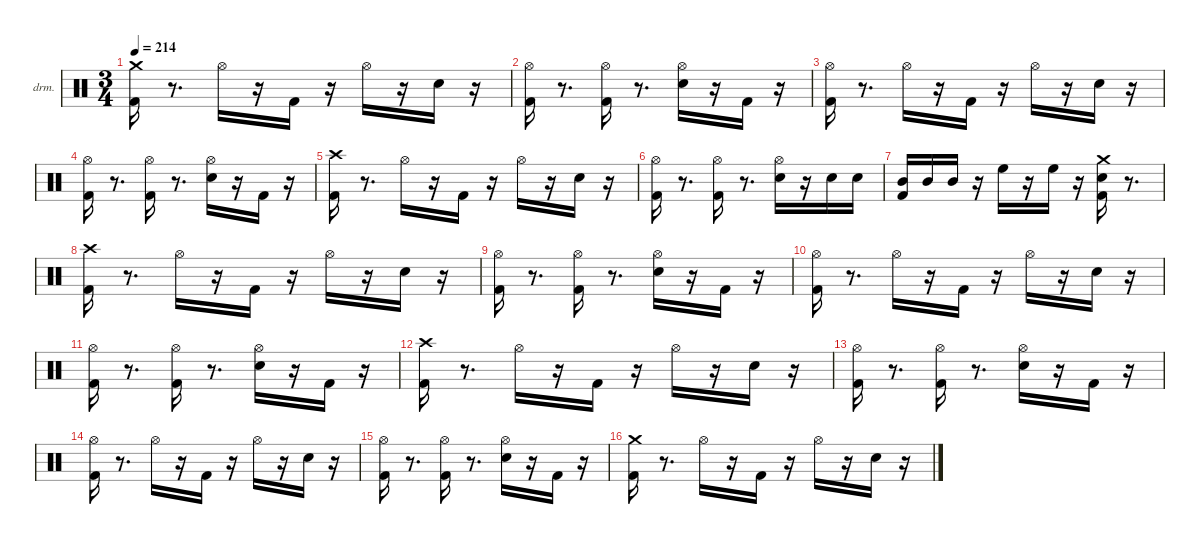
\hideDynamics
\bracketExtendMode nobrackets
\firstSystemTrackNameOrientation horizontal
\otherSystemsTrackNameOrientation horizontal
\track ("EZdrummer 3" "drm.") {instrument percussion}
\staff {score}
\articulation defaults
\ts (3 4)
\tempo 214
\clef neutral
\ks aminor
("Kick (hit) 2" "Crash medium (hit)").16{dy fff beam Down} r.8{d beam Down} "Hi-Hat (open)"{acc #}.16{dy mf beam Down} r.16{beam Down} "Kick (hit) 2".16{dy ff beam Up} r.16{beam Up} "Hi-Hat (open)"{acc #}.16{dy f beam Down} r.16{beam Down} "Snare (hit) 2".16{dy ff beam Down} r.16{beam Down} |
("Kick (hit) 2" "Hi-Hat (open)"{acc #}).16{beam Down} r.8{d beam Down} ("Kick (hit) 2" "Hi-Hat (open)"{acc #}).16{dy f beam Down} r.8{d beam Down} ("Snare (hit) 2" "Hi-Hat (open)"{acc #}).16{beam Down} r.16{beam Down} "Kick (hit) 2".16{dy mp beam Up} r.16{beam Up} |
("Kick (hit) 2" "Hi-Hat (open)"{acc #}).16{dy fff beam Down} r.8{d beam Down} "Hi-Hat (open)"{acc #}.16{dy mf beam Down} r.16{beam Down} "Kick (hit) 2".16{dy ff beam Up} r.16{beam Up} "Hi-Hat (open)"{acc #}.16{dy f beam Down} r.16{beam Down} "Snare (hit) 2".16{dy ff beam Down} r.16{beam Down} |
("Kick (hit) 2" "Hi-Hat (open)"{acc #}).16{dy fff beam Down} r.8{d beam Down} ("Kick (hit) 2" "Hi-Hat (open)"{acc #}).16{dy f beam Down} r.8{d beam Down} ("Snare (hit) 2" "Hi-Hat (open)"{acc #}).16{beam Down} r.16{beam Down} "Kick (hit) 2".16{dy mp beam Up} r.16{beam Up} |
("Kick (hit) 2" "Crash high (hit)"{acc #}).16{dy ff beam Down} r.8{d beam Down} "Hi-Hat (open)"{acc #}.16{dy f beam Down} r.16{beam Down} "Kick (hit) 2".16{dy ff beam Up} r.16{beam Up} "Hi-Hat (open)"{acc #}.16{beam Down} r.16{beam Down} "Snare (hit) 2".16{beam Down} r.16{beam Down} |
("Kick (hit) 2" "Hi-Hat (open)"{acc #}).16{dy f beam Down} r.8{d beam Down} ("Kick (hit) 2" "Hi-Hat (open)"{acc #}).16{dy mf beam Down} r.8{d beam Down} ("Snare (hit) 2" "Hi-Hat (open)"{acc #}).16{dy fff beam Down} r.16{beam Down} "Snare (hit) 2".16{dy mf beam Down} "Snare (hit) 2".16{dy pp beam Down} |
("Kick (hit) 2" "Mid Tom (hit)").16{dy ff beam Up} "Mid Tom (hit)".16{dy mf beam Up} "Mid Tom (hit)".16{dy fff beam Up} r.16{beam Up} "High Floor Tom (hit)".16{dy ff beam Down} r.16{beam Down} "High Floor Tom (hit)".16{dy mf beam Down} r.16{beam Down} ("Kick (hit) 2" "Snare (hit) 2" "Crash medium (hit)").16{dy f beam Down} r.8{d beam Down} |
("Kick (hit) 2" "Crash high (hit)"{acc #}).16{dy fff beam Down} r.8{d beam Down} "Hi-Hat (open)"{acc #}.16{dy mf beam Down} r.16{beam Down} "Kick (hit) 2".16{dy ff beam Up} r.16{beam Up} "Hi-Hat (open)"{acc #}.16{dy f beam Down} r.16{beam Down} "Snare (hit) 2".16{dy ff beam Down} r.16{beam Down} |
("Kick (hit) 2" "Hi-Hat (open)"{acc #}).16{beam Down} r.8{d beam Down} ("Kick (hit) 2" "Hi-Hat (open)"{acc #}).16{dy f beam Down} r.8{d beam Down} ("Snare (hit) 2" "Hi-Hat (open)"{acc #}).16{beam Down} r.16{beam Down} "Kick (hit) 2".16{dy mp beam Up} r.16{beam Up} |
("Kick (hit) 2" "Hi-Hat (open)"{acc #}).16{dy fff beam Down} r.8{d beam Down} "Hi-Hat (open)"{acc #}.16{dy mf beam Down} r.16{beam Down} "Kick (hit) 2".16{dy ff beam Up} r.16{beam Up} "Hi-Hat (open)"{acc #}.16{dy f beam Down} r.16{beam Down} "Snare (hit) 2".16{dy ff beam Down} r.16{beam Down} |
("Kick (hit) 2" "Hi-Hat (open)"{acc #}).16{dy fff beam Down} r.8{d beam Down} ("Kick (hit) 2" "Hi-Hat (open)"{acc #}).16{dy ff beam Down} r.8{d beam Down} ("Snare (hit) 2" "Hi-Hat (open)"{acc #}).16{dy f beam Down} r.16{beam Down} "Kick (hit) 2".16{dy mp beam Up} r.16{beam Up} |
("Kick (hit) 2" "Crash high (hit)"{acc #}).16{dy fff beam Down} r.8{d beam Down} "Hi-Hat (open)"{acc #}.16{dy mf beam Down} r.16{beam Down} "Kick (hit) 2".16{dy ff beam Up} r.16{beam Up} "Hi-Hat (open)"{acc #}.16{dy f beam Down} r.16{beam Down} "Snare (hit) 2".16{dy ff beam Down} r.16{beam Down} |
("Kick (hit) 2" "Hi-Hat (open)"{acc #}).16{beam Down} r.8{d beam Down} ("Kick (hit) 2" "Hi-Hat (open)"{acc #}).16{dy f beam Down} r.8{d beam Down} ("Snare (hit) 2" "Hi-Hat (open)"{acc #}).16{beam Down} r.16{beam Down} "Kick (hit) 2".16{dy mp beam Up} r.16{beam Up} |
("Kick (hit) 2" "Hi-Hat (open)"{acc #}).16{dy fff beam Down} r.8{d beam Down} "Hi-Hat (open)"{acc #}.16{dy mf beam Down} r.16{beam Down} "Kick (hit) 2".16{dy ff beam Up} r.16{beam Up} "Hi-Hat (open)"{acc #}.16{dy f beam Down} r.16{beam Down} "Snare (hit) 2".16{dy ff beam Down} r.16{beam Down} |
("Kick (hit) 2" "Hi-Hat (open)"{acc #}).16{dy fff beam Down} r.8{d beam Down} ("Kick (hit) 2" "Hi-Hat (open)"{acc #}).16{dy ff beam Down} r.8{d beam Down} ("Snare (hit) 2" "Hi-Hat (open)"{acc #}).16{dy f beam Down} r.16{beam Down} "Kick (hit) 2".16{dy mp beam Up} r.16{beam Up} |
("Kick (hit) 2" "Crash medium (hit)").16{dy fff beam Down} r.8{d beam Down} "Hi-Hat (open)"{acc #}.16{dy mf beam Down} r.16{beam Down} "Kick (hit) 2".16{dy f beam Up} r.16{beam Up} "Hi-Hat (open)"{acc #}.16{beam Down} r.16{beam Down} "Snare (hit) 2".16{dy ff beam Down} r.16{beam Down}
